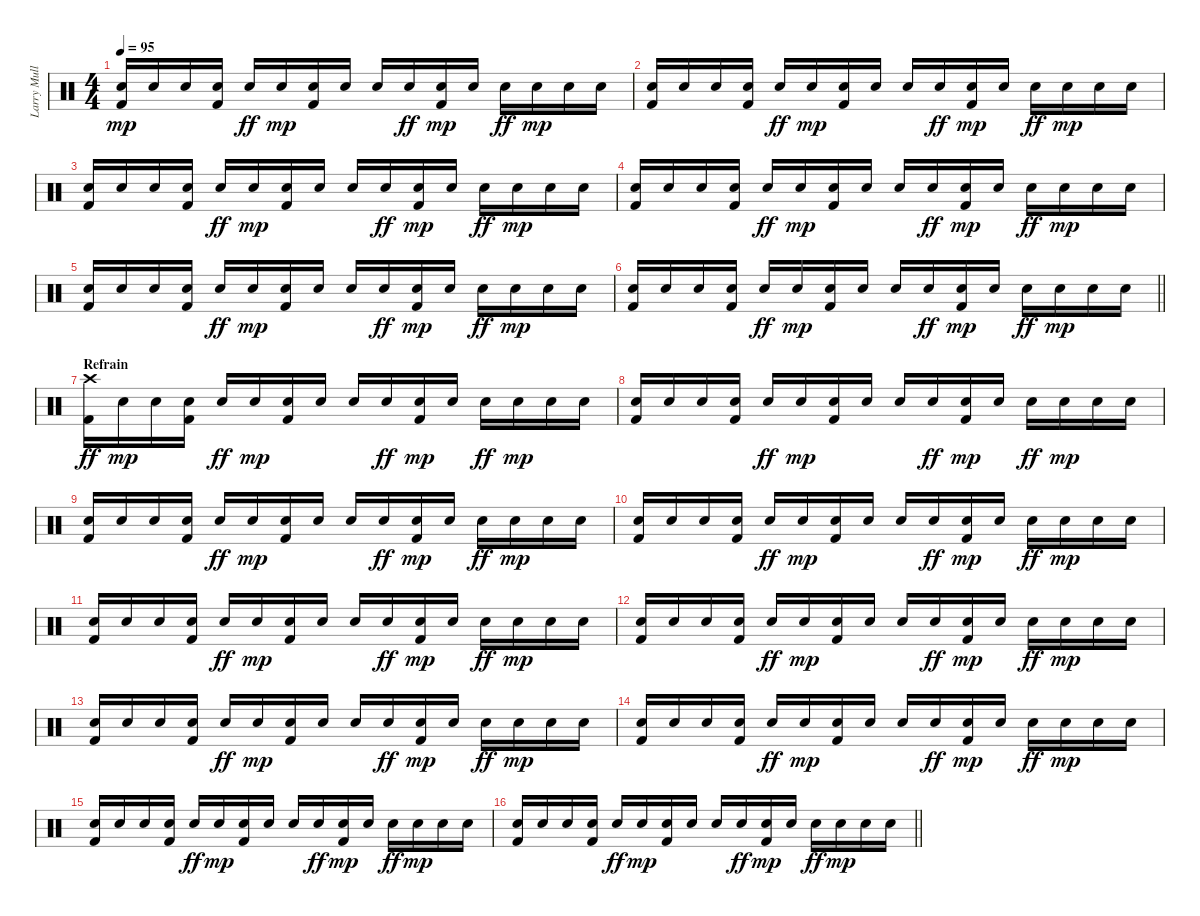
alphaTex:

\track ("Larry Mullen Jr" "Larry Mull") {instrument percussion}
\staff {score}
\articulation defaults
\ts (4 4)
\tempo 95
\clef neutral
\ks c
("Snare (hit) 2" "Kick (hit) 2").16{dy mp} "Snare (hit) 2".16 "Snare (hit) 2".16 ("Snare (hit) 2" "Kick (hit) 2").16 "Snare (hit) 2".16{dy ff} "Snare (hit) 2".16{dy mp} ("Snare (hit) 2" "Kick (hit) 2").16 "Snare (hit) 2".16 "Snare (hit) 2".16 "Snare (hit) 2".16{dy ff} ("Snare (hit) 2" "Kick (hit) 2").16{dy mp} "Snare (hit) 2".16 "Snare (hit) 2".16{dy ff} "Snare (hit) 2".16{dy mp} "Snare (hit) 2".16 "Snare (hit) 2".16 |
("Snare (hit) 2" "Kick (hit) 2").16 "Snare (hit) 2".16 "Snare (hit) 2".16 ("Snare (hit) 2" "Kick (hit) 2").16 "Snare (hit) 2".16{dy ff} "Snare (hit) 2".16{dy mp} ("Snare (hit) 2" "Kick (hit) 2").16 "Snare (hit) 2".16 "Snare (hit) 2".16 "Snare (hit) 2".16{dy ff} ("Snare (hit) 2" "Kick (hit) 2").16{dy mp} "Snare (hit) 2".16 "Snare (hit) 2".16{dy ff} "Snare (hit) 2".16{dy mp} "Snare (hit) 2".16 "Snare (hit) 2".16 |
("Snare (hit) 2" "Kick (hit) 2").16 "Snare (hit) 2".16 "Snare (hit) 2".16 ("Snare (hit) 2" "Kick (hit) 2").16 "Snare (hit) 2".16{dy ff} "Snare (hit) 2".16{dy mp} ("Snare (hit) 2" "Kick (hit) 2").16 "Snare (hit) 2".16 "Snare (hit) 2".16 "Snare (hit) 2".16{dy ff} ("Snare (hit) 2" "Kick (hit) 2").16{dy mp} "Snare (hit) 2".16 "Snare (hit) 2".16{dy ff} "Snare (hit) 2".16{dy mp} "Snare (hit) 2".16 "Snare (hit) 2".16 |
("Snare (hit) 2" "Kick (hit) 2").16 "Snare (hit) 2".16 "Snare (hit) 2".16 ("Snare (hit) 2" "Kick (hit) 2").16 "Snare (hit) 2".16{dy ff} "Snare (hit) 2".16{dy mp} ("Snare (hit) 2" "Kick (hit) 2").16 "Snare (hit) 2".16 "Snare (hit) 2".16 "Snare (hit) 2".16{dy ff} ("Snare (hit) 2" "Kick (hit) 2").16{dy mp} "Snare (hit) 2".16 "Snare (hit) 2".16{dy ff} "Snare (hit) 2".16{dy mp} "Snare (hit) 2".16 "Snare (hit) 2".16 |
("Snare (hit) 2" "Kick (hit) 2").16 "Snare (hit) 2".16 "Snare (hit) 2".16 ("Snare (hit) 2" "Kick (hit) 2").16 "Snare (hit) 2".16{dy ff} "Snare (hit) 2".16{dy mp} ("Snare (hit) 2" "Kick (hit) 2").16 "Snare (hit) 2".16 "Snare (hit) 2".16 "Snare (hit) 2".16{dy ff} ("Snare (hit) 2" "Kick (hit) 2").16{dy mp} "Snare (hit) 2".16 "Snare (hit) 2".16{dy ff} "Snare (hit) 2".16{dy mp} "Snare (hit) 2".16 "Snare (hit) 2".16 |
\barLineRight lightlight
("Snare (hit) 2" "Kick (hit) 2").16 "Snare (hit) 2".16 "Snare (hit) 2".16 ("Snare (hit) 2" "Kick (hit) 2").16 "Snare (hit) 2".16{dy ff} "Snare (hit) 2".16{dy mp} ("Snare (hit) 2" "Kick (hit) 2").16 "Snare (hit) 2".16 "Snare (hit) 2".16 "Snare (hit) 2".16{dy ff} ("Snare (hit) 2" "Kick (hit) 2").16{dy mp} "Snare (hit) 2".16 "Snare (hit) 2".16{dy ff} "Snare (hit) 2".16{dy mp} "Snare (hit) 2".16 "Snare (hit) 2".16 |
\section ("" "Refrain")
("Crash high (hit)" "Kick (hit) 2").16{dy ff} "Snare (hit) 2".16{dy mp} "Snare (hit) 2".16 ("Snare (hit) 2" "Kick (hit) 2").16 "Snare (hit) 2".16{dy ff} "Snare (hit) 2".16{dy mp} ("Snare (hit) 2" "Kick (hit) 2").16 "Snare (hit) 2".16 "Snare (hit) 2".16 "Snare (hit) 2".16{dy ff} ("Snare (hit) 2" "Kick (hit) 2").16{dy mp} "Snare (hit) 2".16 "Snare (hit) 2".16{dy ff} "Snare (hit) 2".16{dy mp} "Snare (hit) 2".16 "Snare (hit) 2".16 |
("Snare (hit) 2" "Kick (hit) 2").16 "Snare (hit) 2".16 "Snare (hit) 2".16 ("Snare (hit) 2" "Kick (hit) 2").16 "Snare (hit) 2".16{dy ff} "Snare (hit) 2".16{dy mp} ("Snare (hit) 2" "Kick (hit) 2").16 "Snare (hit) 2".16 "Snare (hit) 2".16 "Snare (hit) 2".16{dy ff} ("Snare (hit) 2" "Kick (hit) 2").16{dy mp} "Snare (hit) 2".16 "Snare (hit) 2".16{dy ff} "Snare (hit) 2".16{dy mp} "Snare (hit) 2".16 "Snare (hit) 2".16 |
("Snare (hit) 2" "Kick (hit) 2").16 "Snare (hit) 2".16 "Snare (hit) 2".16 ("Snare (hit) 2" "Kick (hit) 2").16 "Snare (hit) 2".16{dy ff} "Snare (hit) 2".16{dy mp} ("Snare (hit) 2" "Kick (hit) 2").16 "Snare (hit) 2".16 "Snare (hit) 2".16 "Snare (hit) 2".16{dy ff} ("Snare (hit) 2" "Kick (hit) 2").16{dy mp} "Snare (hit) 2".16 "Snare (hit) 2".16{dy ff} "Snare (hit) 2".16{dy mp} "Snare (hit) 2".16 "Snare (hit) 2".16 |
("Snare (hit) 2" "Kick (hit) 2").16 "Snare (hit) 2".16 "Snare (hit) 2".16 ("Snare (hit) 2" "Kick (hit) 2").16 "Snare (hit) 2".16{dy ff} "Snare (hit) 2".16{dy mp} ("Snare (hit) 2" "Kick (hit) 2").16 "Snare (hit) 2".16 "Snare (hit) 2".16 "Snare (hit) 2".16{dy ff} ("Snare (hit) 2" "Kick (hit) 2").16{dy mp} "Snare (hit) 2".16 "Snare (hit) 2".16{dy ff} "Snare (hit) 2".16{dy mp} "Snare (hit) 2".16 "Snare (hit) 2".16 |
("Snare (hit) 2" "Kick (hit) 2").16 "Snare (hit) 2".16 "Snare (hit) 2".16 ("Snare (hit) 2" "Kick (hit) 2").16 "Snare (hit) 2".16{dy ff} "Snare (hit) 2".16{dy mp} ("Snare (hit) 2" "Kick (hit) 2").16 "Snare (hit) 2".16 "Snare (hit) 2".16 "Snare (hit) 2".16{dy ff} ("Snare (hit) 2" "Kick (hit) 2").16{dy mp} "Snare (hit) 2".16 "Snare (hit) 2".16{dy ff} "Snare (hit) 2".16{dy mp} "Snare (hit) 2".16 "Snare (hit) 2".16 |
("Snare (hit) 2" "Kick (hit) 2").16 "Snare (hit) 2".16 "Snare (hit) 2".16 ("Snare (hit) 2" "Kick (hit) 2").16 "Snare (hit) 2".16{dy ff} "Snare (hit) 2".16{dy mp} ("Snare (hit) 2" "Kick (hit) 2").16 "Snare (hit) 2".16 "Snare (hit) 2".16 "Snare (hit) 2".16{dy ff} ("Snare (hit) 2" "Kick (hit) 2").16{dy mp} "Snare (hit) 2".16 "Snare (hit) 2".16{dy ff} "Snare (hit) 2".16{dy mp} "Snare (hit) 2".16 "Snare (hit) 2".16 |
("Snare (hit) 2" "Kick (hit) 2").16 "Snare (hit) 2".16 "Snare (hit) 2".16 ("Snare (hit) 2" "Kick (hit) 2").16 "Snare (hit) 2".16{dy ff} "Snare (hit) 2".16{dy mp} ("Snare (hit) 2" "Kick (hit) 2").16 "Snare (hit) 2".16 "Snare (hit) 2".16 "Snare (hit) 2".16{dy ff} ("Snare (hit) 2" "Kick (hit) 2").16{dy mp} "Snare (hit) 2".16 "Snare (hit) 2".16{dy ff} "Snare (hit) 2".16{dy mp} "Snare (hit) 2".16 "Snare (hit) 2".16 |
("Snare (hit) 2" "Kick (hit) 2").16 "Snare (hit) 2".16 "Snare (hit) 2".16 ("Snare (hit) 2" "Kick (hit) 2").16 "Snare (hit) 2".16{dy ff} "Snare (hit) 2".16{dy mp} ("Snare (hit) 2" "Kick (hit) 2").16 "Snare (hit) 2".16 "Snare (hit) 2".16 "Snare (hit) 2".16{dy ff} ("Snare (hit) 2" "Kick (hit) 2").16{dy mp} "Snare (hit) 2".16 "Snare (hit) 2".16{dy ff} "Snare (hit) 2".16{dy mp} "Snare (hit) 2".16 "Snare (hit) 2".16 |
("Snare (hit) 2" "Kick (hit) 2").16 "Snare (hit) 2".16 "Snare (hit) 2".16 ("Snare (hit) 2" "Kick (hit) 2").16 "Snare (hit) 2".16{dy ff} "Snare (hit) 2".16{dy mp} ("Snare (hit) 2" "Kick (hit) 2").16 "Snare (hit) 2".16 "Snare (hit) 2".16 "Snare (hit) 2".16{dy ff} ("Snare (hit) 2" "Kick (hit) 2").16{dy mp} "Snare (hit) 2".16 "Snare (hit) 2".16{dy ff} "Snare (hit) 2".16{dy mp} "Snare (hit) 2".16 "Snare (hit) 2".16 |
\barLineRight lightlight
("Snare (hit) 2" "Kick (hit) 2").16 "Snare (hit) 2".16 "Snare (hit) 2".16 ("Snare (hit) 2" "Kick (hit) 2").16 "Snare (hit) 2".16{dy ff} "Snare (hit) 2".16{dy mp} ("Snare (hit) 2" "Kick (hit) 2").16 "Snare (hit) 2".16 "Snare (hit) 2".16 "Snare (hit) 2".16{dy ff} ("Snare (hit) 2" "Kick (hit) 2").16{dy mp} "Snare (hit) 2".16 "Snare (hit) 2".16{dy ff} "Snare (hit) 2".16{dy mp} "Snare (hit) 2".16 "Snare (hit) 2".16
